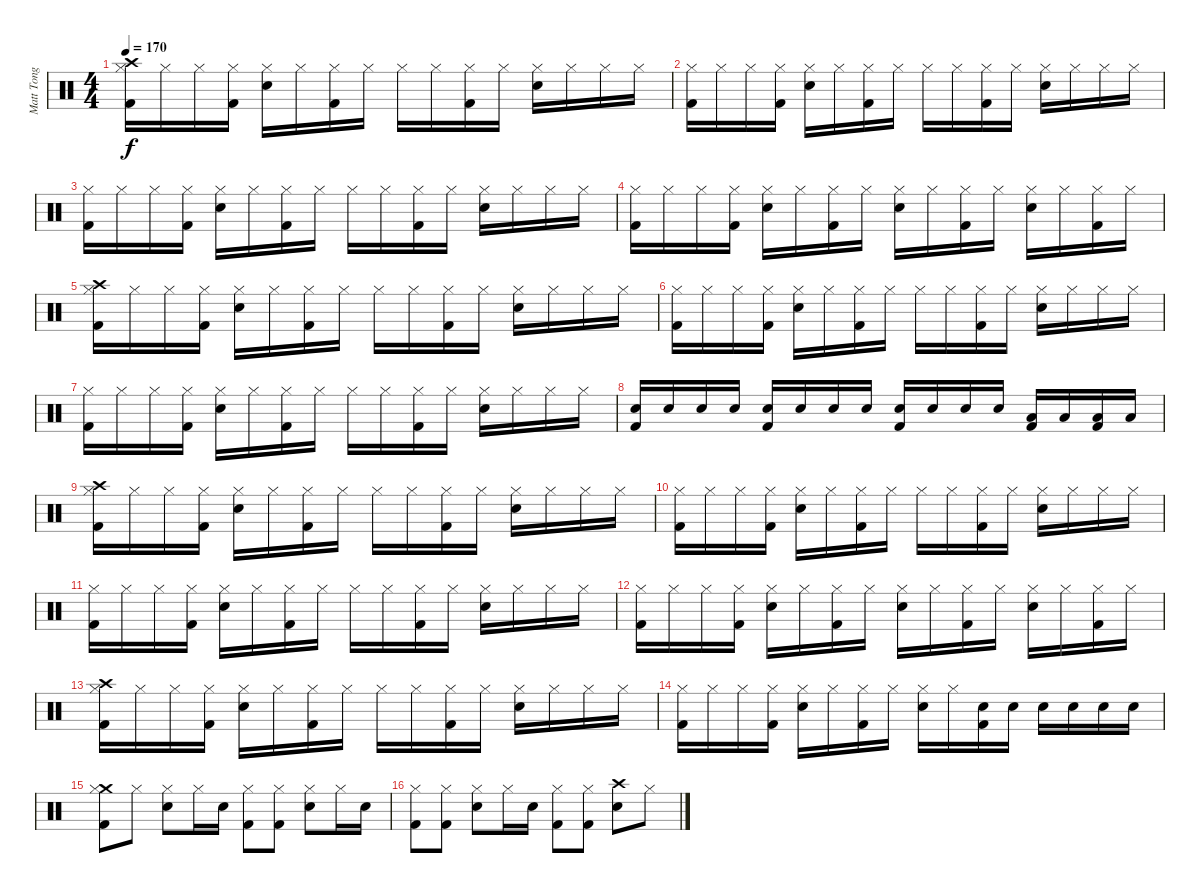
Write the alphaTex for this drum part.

\track ("Matt Tong" "Matt Tong") {instrument percussion}
\staff {score}
\articulation defaults
\ts (4 4)
\tempo 170
\clef neutral
\ks c
("Crash high (hit)" "Hi-Hat (closed)" "Kick (hit) 2").16{dy f} "Hi-Hat (closed)".16 "Hi-Hat (closed)".16 ("Hi-Hat (closed)" "Kick (hit) 2").16 ("Hi-Hat (closed)" "Electric Snare (hit)").16 "Hi-Hat (closed)".16 ("Hi-Hat (closed)" "Kick (hit) 2").16 "Hi-Hat (closed)".16 "Hi-Hat (closed)".16 "Hi-Hat (closed)".16 ("Hi-Hat (closed)" "Kick (hit) 2").16 "Hi-Hat (closed)".16 ("Hi-Hat (closed)" "Electric Snare (hit)").16 "Hi-Hat (closed)".16 "Hi-Hat (closed)".16 "Hi-Hat (closed)".16 |
("Hi-Hat (closed)" "Kick (hit) 2").16 "Hi-Hat (closed)".16 "Hi-Hat (closed)".16 ("Hi-Hat (closed)" "Kick (hit) 2").16 ("Hi-Hat (closed)" "Electric Snare (hit)").16 "Hi-Hat (closed)".16 ("Hi-Hat (closed)" "Kick (hit) 2").16 "Hi-Hat (closed)".16 "Hi-Hat (closed)".16 "Hi-Hat (closed)".16 ("Hi-Hat (closed)" "Kick (hit) 2").16 "Hi-Hat (closed)".16 ("Hi-Hat (closed)" "Electric Snare (hit)").16 "Hi-Hat (closed)".16 "Hi-Hat (closed)".16 "Hi-Hat (closed)".16 |
("Hi-Hat (closed)" "Kick (hit) 2").16 "Hi-Hat (closed)".16 "Hi-Hat (closed)".16 ("Hi-Hat (closed)" "Kick (hit) 2").16 ("Hi-Hat (closed)" "Electric Snare (hit)").16 "Hi-Hat (closed)".16 ("Hi-Hat (closed)" "Kick (hit) 2").16 "Hi-Hat (closed)".16 "Hi-Hat (closed)".16 "Hi-Hat (closed)".16 ("Hi-Hat (closed)" "Kick (hit) 2").16 "Hi-Hat (closed)".16 ("Hi-Hat (closed)" "Electric Snare (hit)").16 "Hi-Hat (closed)".16 "Hi-Hat (closed)".16 "Hi-Hat (closed)".16 |
("Hi-Hat (closed)" "Kick (hit) 2").16 "Hi-Hat (closed)".16 "Hi-Hat (closed)".16 ("Hi-Hat (closed)" "Kick (hit) 2").16 ("Hi-Hat (closed)" "Electric Snare (hit)").16 "Hi-Hat (closed)".16 ("Hi-Hat (closed)" "Kick (hit) 2").16 "Hi-Hat (closed)".16 ("Hi-Hat (closed)" "Electric Snare (hit)").16 "Hi-Hat (closed)".16 ("Hi-Hat (closed)" "Kick (hit) 2").16 "Hi-Hat (closed)".16 ("Hi-Hat (closed)" "Electric Snare (hit)").16 "Hi-Hat (closed)".16 ("Hi-Hat (closed)" "Kick (hit) 2").16 "Hi-Hat (closed)".16 |
("Crash high (hit)" "Hi-Hat (closed)" "Kick (hit) 2").16 "Hi-Hat (closed)".16 "Hi-Hat (closed)".16 ("Hi-Hat (closed)" "Kick (hit) 2").16 ("Hi-Hat (closed)" "Electric Snare (hit)").16 "Hi-Hat (closed)".16 ("Hi-Hat (closed)" "Kick (hit) 2").16 "Hi-Hat (closed)".16 "Hi-Hat (closed)".16 "Hi-Hat (closed)".16 ("Hi-Hat (closed)" "Kick (hit) 2").16 "Hi-Hat (closed)".16 ("Hi-Hat (closed)" "Electric Snare (hit)").16 "Hi-Hat (closed)".16 "Hi-Hat (closed)".16 "Hi-Hat (closed)".16 |
("Hi-Hat (closed)" "Kick (hit) 2").16 "Hi-Hat (closed)".16 "Hi-Hat (closed)".16 ("Hi-Hat (closed)" "Kick (hit) 2").16 ("Hi-Hat (closed)" "Electric Snare (hit)").16 "Hi-Hat (closed)".16 ("Hi-Hat (closed)" "Kick (hit) 2").16 "Hi-Hat (closed)".16 "Hi-Hat (closed)".16 "Hi-Hat (closed)".16 ("Hi-Hat (closed)" "Kick (hit) 2").16 "Hi-Hat (closed)".16 ("Hi-Hat (closed)" "Electric Snare (hit)").16 "Hi-Hat (closed)".16 "Hi-Hat (closed)".16 "Hi-Hat (closed)".16 |
("Hi-Hat (closed)" "Kick (hit) 2").16 "Hi-Hat (closed)".16 "Hi-Hat (closed)".16 ("Hi-Hat (closed)" "Kick (hit) 2").16 ("Hi-Hat (closed)" "Electric Snare (hit)").16 "Hi-Hat (closed)".16 ("Hi-Hat (closed)" "Kick (hit) 2").16 "Hi-Hat (closed)".16 "Hi-Hat (closed)".16 "Hi-Hat (closed)".16 ("Hi-Hat (closed)" "Kick (hit) 2").16 "Hi-Hat (closed)".16 ("Hi-Hat (closed)" "Electric Snare (hit)").16 "Hi-Hat (closed)".16 "Hi-Hat (closed)".16 "Hi-Hat (closed)".16 |
("Electric Snare (hit)" "Kick (hit) 2").16 "Electric Snare (hit)".16 "Electric Snare (hit)".16 "Electric Snare (hit)".16 ("Electric Snare (hit)" "Kick (hit) 2").16 "Electric Snare (hit)".16 "Electric Snare (hit)".16 "Electric Snare (hit)".16 ("Electric Snare (hit)" "Kick (hit) 2").16 "Electric Snare (hit)".16 "Electric Snare (hit)".16 "Electric Snare (hit)".16 ("Low Tom (hit)" "Kick (hit) 2").16 "Low Tom (hit)".16 ("Low Tom (hit)" "Kick (hit) 2").16 "Low Tom (hit)".16 |
("Crash high (hit)" "Hi-Hat (closed)" "Kick (hit) 2").16 "Hi-Hat (closed)".16 "Hi-Hat (closed)".16 ("Hi-Hat (closed)" "Kick (hit) 2").16 ("Hi-Hat (closed)" "Electric Snare (hit)").16 "Hi-Hat (closed)".16 ("Hi-Hat (closed)" "Kick (hit) 2").16 "Hi-Hat (closed)".16 "Hi-Hat (closed)".16 "Hi-Hat (closed)".16 ("Hi-Hat (closed)" "Kick (hit) 2").16 "Hi-Hat (closed)".16 ("Hi-Hat (closed)" "Electric Snare (hit)").16 "Hi-Hat (closed)".16 "Hi-Hat (closed)".16 "Hi-Hat (closed)".16 |
("Hi-Hat (closed)" "Kick (hit) 2").16 "Hi-Hat (closed)".16 "Hi-Hat (closed)".16 ("Hi-Hat (closed)" "Kick (hit) 2").16 ("Hi-Hat (closed)" "Electric Snare (hit)").16 "Hi-Hat (closed)".16 ("Hi-Hat (closed)" "Kick (hit) 2").16 "Hi-Hat (closed)".16 "Hi-Hat (closed)".16 "Hi-Hat (closed)".16 ("Hi-Hat (closed)" "Kick (hit) 2").16 "Hi-Hat (closed)".16 ("Hi-Hat (closed)" "Electric Snare (hit)").16 "Hi-Hat (closed)".16 "Hi-Hat (closed)".16 "Hi-Hat (closed)".16 |
("Hi-Hat (closed)" "Kick (hit) 2").16 "Hi-Hat (closed)".16 "Hi-Hat (closed)".16 ("Hi-Hat (closed)" "Kick (hit) 2").16 ("Hi-Hat (closed)" "Electric Snare (hit)").16 "Hi-Hat (closed)".16 ("Hi-Hat (closed)" "Kick (hit) 2").16 "Hi-Hat (closed)".16 "Hi-Hat (closed)".16 "Hi-Hat (closed)".16 ("Hi-Hat (closed)" "Kick (hit) 2").16 "Hi-Hat (closed)".16 ("Hi-Hat (closed)" "Electric Snare (hit)").16 "Hi-Hat (closed)".16 "Hi-Hat (closed)".16 "Hi-Hat (closed)".16 |
("Hi-Hat (closed)" "Kick (hit) 2").16 "Hi-Hat (closed)".16 "Hi-Hat (closed)".16 ("Hi-Hat (closed)" "Kick (hit) 2").16 ("Hi-Hat (closed)" "Electric Snare (hit)").16 "Hi-Hat (closed)".16 ("Hi-Hat (closed)" "Kick (hit) 2").16 "Hi-Hat (closed)".16 ("Hi-Hat (closed)" "Electric Snare (hit)").16 "Hi-Hat (closed)".16 ("Hi-Hat (closed)" "Kick (hit) 2").16 "Hi-Hat (closed)".16 ("Hi-Hat (closed)" "Electric Snare (hit)").16 "Hi-Hat (closed)".16 ("Hi-Hat (closed)" "Kick (hit) 2").16 "Hi-Hat (closed)".16 |
("Crash high (hit)" "Hi-Hat (closed)" "Kick (hit) 2").16 "Hi-Hat (closed)".16 "Hi-Hat (closed)".16 ("Hi-Hat (closed)" "Kick (hit) 2").16 ("Hi-Hat (closed)" "Electric Snare (hit)").16 "Hi-Hat (closed)".16 ("Hi-Hat (closed)" "Kick (hit) 2").16 "Hi-Hat (closed)".16 "Hi-Hat (closed)".16 "Hi-Hat (closed)".16 ("Hi-Hat (closed)" "Kick (hit) 2").16 "Hi-Hat (closed)".16 ("Hi-Hat (closed)" "Electric Snare (hit)").16 "Hi-Hat (closed)".16 "Hi-Hat (closed)".16 "Hi-Hat (closed)".16 |
("Hi-Hat (closed)" "Kick (hit) 2").16 "Hi-Hat (closed)".16 "Hi-Hat (closed)".16 ("Hi-Hat (closed)" "Kick (hit) 2").16 ("Hi-Hat (closed)" "Electric Snare (hit)").16 "Hi-Hat (closed)".16 ("Hi-Hat (closed)" "Kick (hit) 2").16 "Hi-Hat (closed)".16 ("Hi-Hat (closed)" "Electric Snare (hit)").16 "Hi-Hat (closed)".16 ("Electric Snare (hit)" "Kick (hit) 2").16 "Electric Snare (hit)".16 "Electric Snare (hit)".16 "Electric Snare (hit)".16 "Electric Snare (hit)".16 "Electric Snare (hit)".16 |
("Crash medium (hit)" "Hi-Hat (closed)" "Kick (hit) 2").8 "Hi-Hat (closed)".8 ("Hi-Hat (closed)" "Electric Snare (hit)").8 "Hi-Hat (closed)".16 "Electric Snare (hit)".16 ("Hi-Hat (closed)" "Kick (hit) 2").8 ("Hi-Hat (closed)" "Kick (hit) 2").8 ("Hi-Hat (closed)" "Electric Snare (hit)").8 "Hi-Hat (closed)".16 "Electric Snare (hit)".16 |
("Hi-Hat (closed)" "Kick (hit) 2").8 ("Hi-Hat (closed)" "Kick (hit) 2").8 ("Hi-Hat (closed)" "Electric Snare (hit)").8 "Hi-Hat (closed)".16 "Electric Snare (hit)".16 ("Hi-Hat (closed)" "Kick (hit) 2").8 ("Hi-Hat (closed)" "Kick (hit) 2").8 ("Crash high (hit)" "Electric Snare (hit)").8 "Hi-Hat (closed)".8
